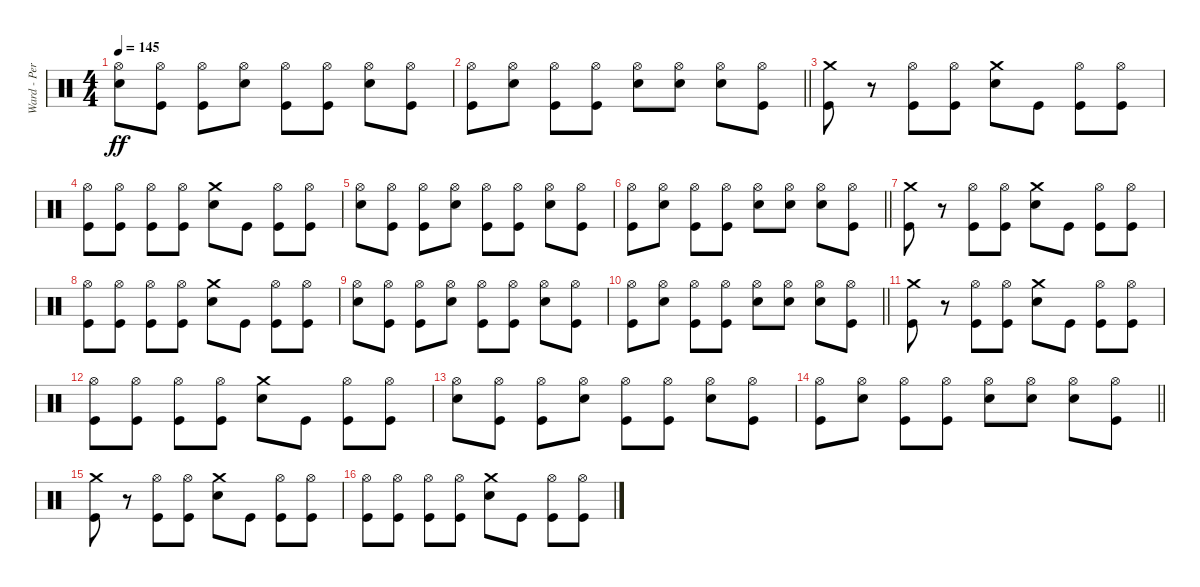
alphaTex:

\track ("Ward - Percussion" "Ward - Per") {instrument percussion}
\staff {score}
\articulation defaults
\ts (4 4)
\tempo 145
\clef neutral
\ks c
("Hi-Hat (open)" "Snare (hit) 2").8{dy ff} ("Hi-Hat (open)" "Kick (hit)").8 ("Hi-Hat (open)" "Kick (hit)").8 ("Snare (hit) 2" "Hi-Hat (open)").8 ("Hi-Hat (open)" "Kick (hit)").8 ("Hi-Hat (open)" "Kick (hit)").8 ("Snare (hit) 2" "Hi-Hat (open)").8 ("Hi-Hat (open)" "Kick (hit)").8 |
\barLineRight lightlight
("Hi-Hat (open)" "Kick (hit)").8 ("Snare (hit) 2" "Hi-Hat (open)").8 ("Hi-Hat (open)" "Kick (hit)").8 ("Hi-Hat (open)" "Kick (hit)").8 ("Hi-Hat (open)" "Snare (hit) 2").8 ("Hi-Hat (open)" "Snare (hit) 2").8 ("Hi-Hat (open)" "Snare (hit) 2").8 ("Hi-Hat (open)" "Kick (hit)").8 |
("Kick (hit)" "Crash medium (hit)").8 r.8 ("Hi-Hat (open)" "Kick (hit)").8 ("Hi-Hat (open)" "Kick (hit)").8 ("Snare (hit) 2" "Crash medium (hit)").8 "Kick (hit)".8 ("Hi-Hat (open)" "Kick (hit)").8 ("Hi-Hat (open)" "Kick (hit)").8 |
("Hi-Hat (open)" "Kick (hit)").8 ("Hi-Hat (open)" "Kick (hit)").8 ("Kick (hit)" "Hi-Hat (open)").8 ("Hi-Hat (open)" "Kick (hit)").8 ("Snare (hit) 2" "Crash medium (hit)").8 "Kick (hit)".8 ("Hi-Hat (open)" "Kick (hit)").8 ("Hi-Hat (open)" "Kick (hit)").8 |
("Hi-Hat (open)" "Snare (hit) 2").8 ("Hi-Hat (open)" "Kick (hit)").8 ("Hi-Hat (open)" "Kick (hit)").8 ("Snare (hit) 2" "Hi-Hat (open)").8 ("Hi-Hat (open)" "Kick (hit)").8 ("Hi-Hat (open)" "Kick (hit)").8 ("Snare (hit) 2" "Hi-Hat (open)").8 ("Hi-Hat (open)" "Kick (hit)").8 |
\barLineRight lightlight
("Hi-Hat (open)" "Kick (hit)").8 ("Snare (hit) 2" "Hi-Hat (open)").8 ("Hi-Hat (open)" "Kick (hit)").8 ("Hi-Hat (open)" "Kick (hit)").8 ("Hi-Hat (open)" "Snare (hit) 2").8 ("Hi-Hat (open)" "Snare (hit) 2").8 ("Hi-Hat (open)" "Snare (hit) 2").8 ("Hi-Hat (open)" "Kick (hit)").8 |
("Kick (hit)" "Crash medium (hit)").8 r.8 ("Hi-Hat (open)" "Kick (hit)").8 ("Hi-Hat (open)" "Kick (hit)").8 ("Snare (hit) 2" "Crash medium (hit)").8 "Kick (hit)".8 ("Hi-Hat (open)" "Kick (hit)").8 ("Hi-Hat (open)" "Kick (hit)").8 |
("Hi-Hat (open)" "Kick (hit)").8 ("Hi-Hat (open)" "Kick (hit)").8 ("Kick (hit)" "Hi-Hat (open)").8 ("Hi-Hat (open)" "Kick (hit)").8 ("Snare (hit) 2" "Crash medium (hit)").8 "Kick (hit)".8 ("Hi-Hat (open)" "Kick (hit)").8 ("Hi-Hat (open)" "Kick (hit)").8 |
("Hi-Hat (open)" "Snare (hit) 2").8 ("Hi-Hat (open)" "Kick (hit)").8 ("Hi-Hat (open)" "Kick (hit)").8 ("Snare (hit) 2" "Hi-Hat (open)").8 ("Hi-Hat (open)" "Kick (hit)").8 ("Hi-Hat (open)" "Kick (hit)").8 ("Snare (hit) 2" "Hi-Hat (open)").8 ("Hi-Hat (open)" "Kick (hit)").8 |
\barLineRight lightlight
("Hi-Hat (open)" "Kick (hit)").8 ("Snare (hit) 2" "Hi-Hat (open)").8 ("Hi-Hat (open)" "Kick (hit)").8 ("Hi-Hat (open)" "Kick (hit)").8 ("Hi-Hat (open)" "Snare (hit) 2").8 ("Hi-Hat (open)" "Snare (hit) 2").8 ("Hi-Hat (open)" "Snare (hit) 2").8 ("Hi-Hat (open)" "Kick (hit)").8 |
("Kick (hit)" "Crash medium (hit)").8 r.8 ("Hi-Hat (open)" "Kick (hit)").8 ("Hi-Hat (open)" "Kick (hit)").8 ("Snare (hit) 2" "Crash medium (hit)").8 "Kick (hit)".8 ("Hi-Hat (open)" "Kick (hit)").8 ("Hi-Hat (open)" "Kick (hit)").8 |
("Hi-Hat (open)" "Kick (hit)").8 ("Hi-Hat (open)" "Kick (hit)").8 ("Kick (hit)" "Hi-Hat (open)").8 ("Hi-Hat (open)" "Kick (hit)").8 ("Snare (hit) 2" "Crash medium (hit)").8 "Kick (hit)".8 ("Hi-Hat (open)" "Kick (hit)").8 ("Hi-Hat (open)" "Kick (hit)").8 |
("Hi-Hat (open)" "Snare (hit) 2").8 ("Hi-Hat (open)" "Kick (hit)").8 ("Hi-Hat (open)" "Kick (hit)").8 ("Snare (hit) 2" "Hi-Hat (open)").8 ("Hi-Hat (open)" "Kick (hit)").8 ("Hi-Hat (open)" "Kick (hit)").8 ("Snare (hit) 2" "Hi-Hat (open)").8 ("Hi-Hat (open)" "Kick (hit)").8 |
\barLineRight lightlight
("Hi-Hat (open)" "Kick (hit)").8 ("Snare (hit) 2" "Hi-Hat (open)").8 ("Hi-Hat (open)" "Kick (hit)").8 ("Hi-Hat (open)" "Kick (hit)").8 ("Hi-Hat (open)" "Snare (hit) 2").8 ("Hi-Hat (open)" "Snare (hit) 2").8 ("Hi-Hat (open)" "Snare (hit) 2").8 ("Hi-Hat (open)" "Kick (hit)").8 |
("Kick (hit)" "Crash medium (hit)").8 r.8 ("Hi-Hat (open)" "Kick (hit)").8 ("Hi-Hat (open)" "Kick (hit)").8 ("Snare (hit) 2" "Crash medium (hit)").8 "Kick (hit)".8 ("Hi-Hat (open)" "Kick (hit)").8 ("Hi-Hat (open)" "Kick (hit)").8 |
("Hi-Hat (open)" "Kick (hit)").8 ("Hi-Hat (open)" "Kick (hit)").8 ("Kick (hit)" "Hi-Hat (open)").8 ("Hi-Hat (open)" "Kick (hit)").8 ("Snare (hit) 2" "Crash medium (hit)").8 "Kick (hit)".8 ("Hi-Hat (open)" "Kick (hit)").8 ("Hi-Hat (open)" "Kick (hit)").8
